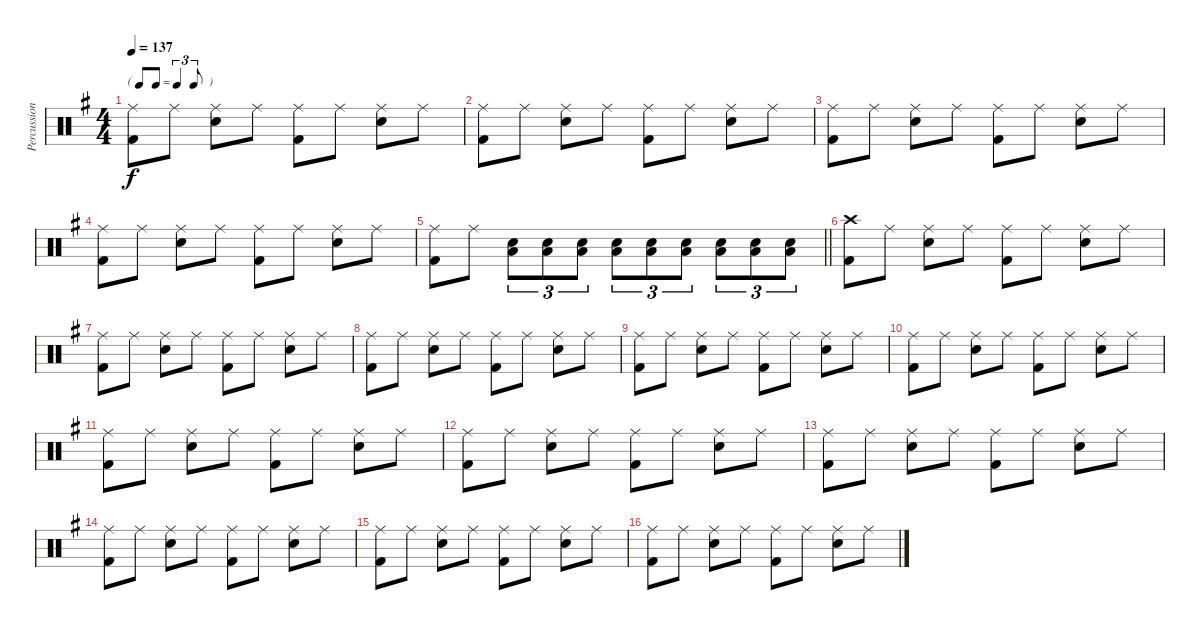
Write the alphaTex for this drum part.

\track ("Percussion" "Percussion") {instrument percussion}
\staff {score}
\articulation defaults
\ts (4 4)
\tf triplet8th
\tempo 137
\clef neutral
\ks g
("Ride (middle)" "Kick (hit) 2").8{dy f} "Ride (middle)".8 ("Ride (middle)" "Snare (hit) 2").8 "Ride (middle)".8 ("Ride (middle)" "Kick (hit) 2").8 "Ride (middle)".8 ("Ride (middle)" "Snare (hit) 2").8 "Ride (middle)".8 |
("Ride (middle)" "Kick (hit) 2").8 "Ride (middle)".8 ("Ride (middle)" "Snare (hit) 2").8 "Ride (middle)".8 ("Ride (middle)" "Kick (hit) 2").8 "Ride (middle)".8 ("Ride (middle)" "Snare (hit) 2").8 "Ride (middle)".8 |
("Ride (middle)" "Kick (hit) 2").8 "Ride (middle)".8 ("Ride (middle)" "Snare (hit) 2").8 "Ride (middle)".8 ("Ride (middle)" "Kick (hit) 2").8 "Ride (middle)".8 ("Ride (middle)" "Snare (hit) 2").8 "Ride (middle)".8 |
("Ride (middle)" "Kick (hit) 2").8 "Ride (middle)".8 ("Ride (middle)" "Snare (hit) 2").8 "Ride (middle)".8 ("Ride (middle)" "Kick (hit) 2").8 "Ride (middle)".8 ("Ride (middle)" "Snare (hit) 2").8 "Ride (middle)".8 |
\barLineRight lightlight
("Ride (middle)" "Kick (hit) 2").8 "Ride (middle)".8 ("Snare (hit) 2" "Low Floor Tom (hit)").8{tu (3 2)} ("Snare (hit) 2" "Low Floor Tom (hit)").8{tu (3 2)} ("Snare (hit) 2" "Low Floor Tom (hit)").8{tu (3 2)} ("Snare (hit) 2" "Low Floor Tom (hit)").8{tu (3 2)} ("Snare (hit) 2" "Low Floor Tom (hit)").8{tu (3 2)} ("Snare (hit) 2" "Low Floor Tom (hit)").8{tu (3 2)} ("Snare (hit) 2" "Low Floor Tom (hit)").8{tu (3 2)} ("Snare (hit) 2" "Low Floor Tom (hit)").8{tu (3 2)} ("Snare (hit) 2" "Low Floor Tom (hit)").8{tu (3 2)} |
("Crash high (hit)" "Kick (hit) 2").8 "Ride (middle)".8 ("Ride (middle)" "Snare (hit) 2").8 "Ride (middle)".8 ("Ride (middle)" "Kick (hit) 2").8 "Ride (middle)".8 ("Ride (middle)" "Snare (hit) 2").8 "Ride (middle)".8 |
("Ride (middle)" "Kick (hit) 2").8 "Ride (middle)".8 ("Ride (middle)" "Snare (hit) 2").8 "Ride (middle)".8 ("Ride (middle)" "Kick (hit) 2").8 "Ride (middle)".8 ("Ride (middle)" "Snare (hit) 2").8 "Ride (middle)".8 |
("Ride (middle)" "Kick (hit) 2").8 "Ride (middle)".8 ("Ride (middle)" "Snare (hit) 2").8 "Ride (middle)".8 ("Ride (middle)" "Kick (hit) 2").8 "Ride (middle)".8 ("Ride (middle)" "Snare (hit) 2").8 "Ride (middle)".8 |
("Ride (middle)" "Kick (hit) 2").8 "Ride (middle)".8 ("Ride (middle)" "Snare (hit) 2").8 "Ride (middle)".8 ("Ride (middle)" "Kick (hit) 2").8 "Ride (middle)".8 ("Ride (middle)" "Snare (hit) 2").8 "Ride (middle)".8 |
("Ride (middle)" "Kick (hit) 2").8 "Ride (middle)".8 ("Ride (middle)" "Snare (hit) 2").8 "Ride (middle)".8 ("Ride (middle)" "Kick (hit) 2").8 "Ride (middle)".8 ("Ride (middle)" "Snare (hit) 2").8 "Ride (middle)".8 |
("Ride (middle)" "Kick (hit) 2").8 "Ride (middle)".8 ("Ride (middle)" "Snare (hit) 2").8 "Ride (middle)".8 ("Ride (middle)" "Kick (hit) 2").8 "Ride (middle)".8 ("Ride (middle)" "Snare (hit) 2").8 "Ride (middle)".8 |
("Ride (middle)" "Kick (hit) 2").8 "Ride (middle)".8 ("Ride (middle)" "Snare (hit) 2").8 "Ride (middle)".8 ("Ride (middle)" "Kick (hit) 2").8 "Ride (middle)".8 ("Ride (middle)" "Snare (hit) 2").8 "Ride (middle)".8 |
("Ride (middle)" "Kick (hit) 2").8 "Ride (middle)".8 ("Ride (middle)" "Snare (hit) 2").8 "Ride (middle)".8 ("Ride (middle)" "Kick (hit) 2").8 "Ride (middle)".8 ("Ride (middle)" "Snare (hit) 2").8 "Ride (middle)".8 |
("Ride (middle)" "Kick (hit) 2").8 "Ride (middle)".8 ("Ride (middle)" "Snare (hit) 2").8 "Ride (middle)".8 ("Ride (middle)" "Kick (hit) 2").8 "Ride (middle)".8 ("Ride (middle)" "Snare (hit) 2").8 "Ride (middle)".8 |
("Ride (middle)" "Kick (hit) 2").8 "Ride (middle)".8 ("Ride (middle)" "Snare (hit) 2").8 "Ride (middle)".8 ("Ride (middle)" "Kick (hit) 2").8 "Ride (middle)".8 ("Ride (middle)" "Snare (hit) 2").8 "Ride (middle)".8 |
("Ride (middle)" "Kick (hit) 2").8 "Ride (middle)".8 ("Ride (middle)" "Snare (hit) 2").8 "Ride (middle)".8 ("Ride (middle)" "Kick (hit) 2").8 "Ride (middle)".8 ("Ride (middle)" "Snare (hit) 2").8 "Ride (middle)".8
